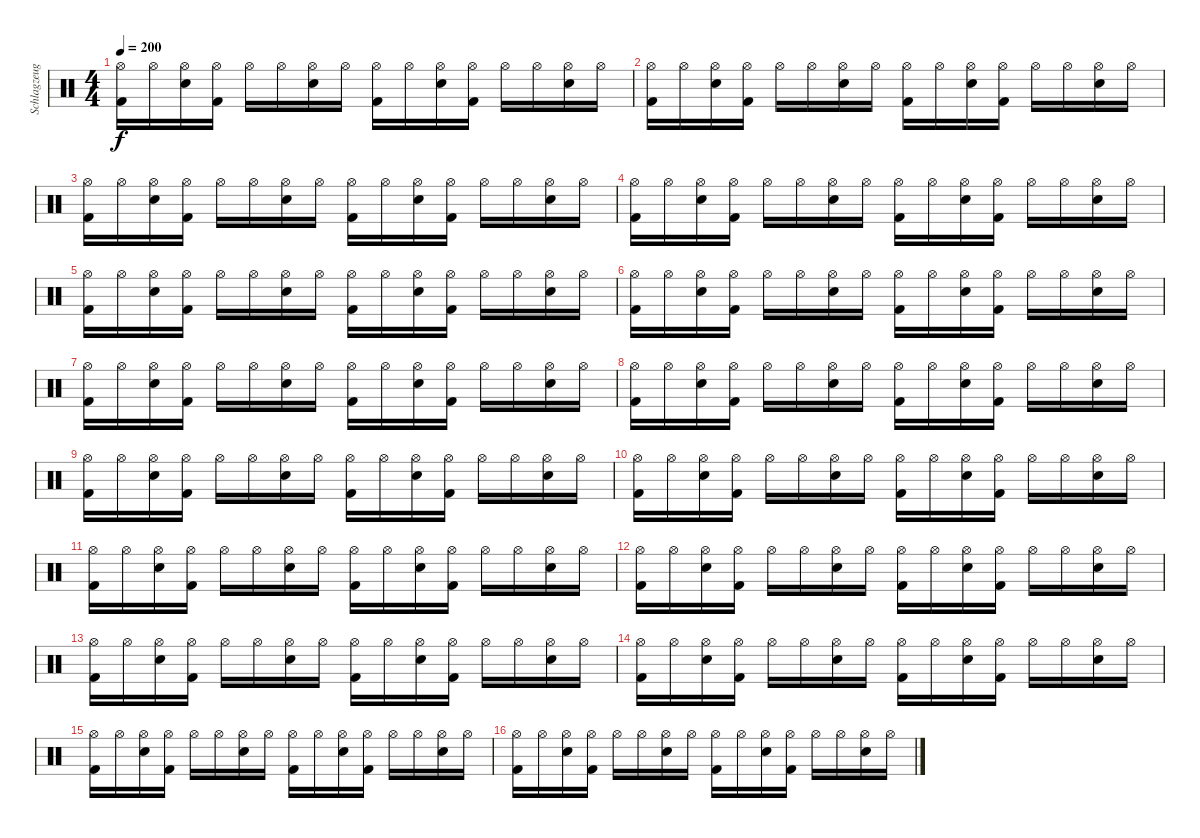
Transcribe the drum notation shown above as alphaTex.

\track ("Schlagzeug - Bela B." "Schlagzeug") {instrument percussion}
\staff {score}
\articulation defaults
\ts (4 4)
\tempo 200
\clef neutral
\ks c
("Kick (hit) 2" "Hi-Hat (open)").16{dy f} "Hi-Hat (open)".16 ("Electric Snare (hit)" "Hi-Hat (open)").16 ("Hi-Hat (open)" "Kick (hit) 2").16 "Hi-Hat (open)".16 "Hi-Hat (open)".16 ("Electric Snare (hit)" "Hi-Hat (open)").16 "Hi-Hat (open)".16 ("Kick (hit) 2" "Hi-Hat (open)").16 "Hi-Hat (open)".16 ("Electric Snare (hit)" "Hi-Hat (open)").16 ("Hi-Hat (open)" "Kick (hit) 2").16 "Hi-Hat (open)".16 "Hi-Hat (open)".16 ("Electric Snare (hit)" "Hi-Hat (open)").16 "Hi-Hat (open)".16 |
("Kick (hit) 2" "Hi-Hat (open)").16 "Hi-Hat (open)".16 ("Electric Snare (hit)" "Hi-Hat (open)").16 ("Hi-Hat (open)" "Kick (hit) 2").16 "Hi-Hat (open)".16 "Hi-Hat (open)".16 ("Electric Snare (hit)" "Hi-Hat (open)").16 "Hi-Hat (open)".16 ("Kick (hit) 2" "Hi-Hat (open)").16 "Hi-Hat (open)".16 ("Electric Snare (hit)" "Hi-Hat (open)").16 ("Hi-Hat (open)" "Kick (hit) 2").16 "Hi-Hat (open)".16 "Hi-Hat (open)".16 ("Electric Snare (hit)" "Hi-Hat (open)").16 "Hi-Hat (open)".16 |
("Kick (hit) 2" "Hi-Hat (open)").16 "Hi-Hat (open)".16 ("Electric Snare (hit)" "Hi-Hat (open)").16 ("Hi-Hat (open)" "Kick (hit) 2").16 "Hi-Hat (open)".16 "Hi-Hat (open)".16 ("Electric Snare (hit)" "Hi-Hat (open)").16 "Hi-Hat (open)".16 ("Kick (hit) 2" "Hi-Hat (open)").16 "Hi-Hat (open)".16 ("Electric Snare (hit)" "Hi-Hat (open)").16 ("Hi-Hat (open)" "Kick (hit) 2").16 "Hi-Hat (open)".16 "Hi-Hat (open)".16 ("Electric Snare (hit)" "Hi-Hat (open)").16 "Hi-Hat (open)".16 |
("Kick (hit) 2" "Hi-Hat (open)").16 "Hi-Hat (open)".16 ("Electric Snare (hit)" "Hi-Hat (open)").16 ("Hi-Hat (open)" "Kick (hit) 2").16 "Hi-Hat (open)".16 "Hi-Hat (open)".16 ("Electric Snare (hit)" "Hi-Hat (open)").16 "Hi-Hat (open)".16 ("Kick (hit) 2" "Hi-Hat (open)").16 "Hi-Hat (open)".16 ("Electric Snare (hit)" "Hi-Hat (open)").16 ("Hi-Hat (open)" "Kick (hit) 2").16 "Hi-Hat (open)".16 "Hi-Hat (open)".16 ("Electric Snare (hit)" "Hi-Hat (open)").16 "Hi-Hat (open)".16 |
("Kick (hit) 2" "Hi-Hat (open)").16 "Hi-Hat (open)".16 ("Electric Snare (hit)" "Hi-Hat (open)").16 ("Hi-Hat (open)" "Kick (hit) 2").16 "Hi-Hat (open)".16 "Hi-Hat (open)".16 ("Electric Snare (hit)" "Hi-Hat (open)").16 "Hi-Hat (open)".16 ("Kick (hit) 2" "Hi-Hat (open)").16 "Hi-Hat (open)".16 ("Electric Snare (hit)" "Hi-Hat (open)").16 ("Hi-Hat (open)" "Kick (hit) 2").16 "Hi-Hat (open)".16 "Hi-Hat (open)".16 ("Electric Snare (hit)" "Hi-Hat (open)").16 "Hi-Hat (open)".16 |
("Kick (hit) 2" "Hi-Hat (open)").16 "Hi-Hat (open)".16 ("Electric Snare (hit)" "Hi-Hat (open)").16 ("Hi-Hat (open)" "Kick (hit) 2").16 "Hi-Hat (open)".16 "Hi-Hat (open)".16 ("Electric Snare (hit)" "Hi-Hat (open)").16 "Hi-Hat (open)".16 ("Kick (hit) 2" "Hi-Hat (open)").16 "Hi-Hat (open)".16 ("Electric Snare (hit)" "Hi-Hat (open)").16 ("Hi-Hat (open)" "Kick (hit) 2").16 "Hi-Hat (open)".16 "Hi-Hat (open)".16 ("Electric Snare (hit)" "Hi-Hat (open)").16 "Hi-Hat (open)".16 |
("Kick (hit) 2" "Hi-Hat (open)").16 "Hi-Hat (open)".16 ("Electric Snare (hit)" "Hi-Hat (open)").16 ("Hi-Hat (open)" "Kick (hit) 2").16 "Hi-Hat (open)".16 "Hi-Hat (open)".16 ("Electric Snare (hit)" "Hi-Hat (open)").16 "Hi-Hat (open)".16 ("Kick (hit) 2" "Hi-Hat (open)").16 "Hi-Hat (open)".16 ("Electric Snare (hit)" "Hi-Hat (open)").16 ("Hi-Hat (open)" "Kick (hit) 2").16 "Hi-Hat (open)".16 "Hi-Hat (open)".16 ("Electric Snare (hit)" "Hi-Hat (open)").16 "Hi-Hat (open)".16 |
("Kick (hit) 2" "Hi-Hat (open)").16 "Hi-Hat (open)".16 ("Electric Snare (hit)" "Hi-Hat (open)").16 ("Hi-Hat (open)" "Kick (hit) 2").16 "Hi-Hat (open)".16 "Hi-Hat (open)".16 ("Electric Snare (hit)" "Hi-Hat (open)").16 "Hi-Hat (open)".16 ("Kick (hit) 2" "Hi-Hat (open)").16 "Hi-Hat (open)".16 ("Electric Snare (hit)" "Hi-Hat (open)").16 ("Hi-Hat (open)" "Kick (hit) 2").16 "Hi-Hat (open)".16 "Hi-Hat (open)".16 ("Electric Snare (hit)" "Hi-Hat (open)").16 "Hi-Hat (open)".16 |
("Kick (hit) 2" "Hi-Hat (open)").16 "Hi-Hat (open)".16 ("Electric Snare (hit)" "Hi-Hat (open)").16 ("Hi-Hat (open)" "Kick (hit) 2").16 "Hi-Hat (open)".16 "Hi-Hat (open)".16 ("Electric Snare (hit)" "Hi-Hat (open)").16 "Hi-Hat (open)".16 ("Kick (hit) 2" "Hi-Hat (open)").16 "Hi-Hat (open)".16 ("Electric Snare (hit)" "Hi-Hat (open)").16 ("Hi-Hat (open)" "Kick (hit) 2").16 "Hi-Hat (open)".16 "Hi-Hat (open)".16 ("Electric Snare (hit)" "Hi-Hat (open)").16 "Hi-Hat (open)".16 |
("Kick (hit) 2" "Hi-Hat (open)").16 "Hi-Hat (open)".16 ("Electric Snare (hit)" "Hi-Hat (open)").16 ("Hi-Hat (open)" "Kick (hit) 2").16 "Hi-Hat (open)".16 "Hi-Hat (open)".16 ("Electric Snare (hit)" "Hi-Hat (open)").16 "Hi-Hat (open)".16 ("Kick (hit) 2" "Hi-Hat (open)").16 "Hi-Hat (open)".16 ("Electric Snare (hit)" "Hi-Hat (open)").16 ("Hi-Hat (open)" "Kick (hit) 2").16 "Hi-Hat (open)".16 "Hi-Hat (open)".16 ("Electric Snare (hit)" "Hi-Hat (open)").16 "Hi-Hat (open)".16 |
("Kick (hit) 2" "Hi-Hat (open)").16 "Hi-Hat (open)".16 ("Electric Snare (hit)" "Hi-Hat (open)").16 ("Hi-Hat (open)" "Kick (hit) 2").16 "Hi-Hat (open)".16 "Hi-Hat (open)".16 ("Electric Snare (hit)" "Hi-Hat (open)").16 "Hi-Hat (open)".16 ("Kick (hit) 2" "Hi-Hat (open)").16 "Hi-Hat (open)".16 ("Electric Snare (hit)" "Hi-Hat (open)").16 ("Hi-Hat (open)" "Kick (hit) 2").16 "Hi-Hat (open)".16 "Hi-Hat (open)".16 ("Electric Snare (hit)" "Hi-Hat (open)").16 "Hi-Hat (open)".16 |
("Kick (hit) 2" "Hi-Hat (open)").16 "Hi-Hat (open)".16 ("Electric Snare (hit)" "Hi-Hat (open)").16 ("Hi-Hat (open)" "Kick (hit) 2").16 "Hi-Hat (open)".16 "Hi-Hat (open)".16 ("Electric Snare (hit)" "Hi-Hat (open)").16 "Hi-Hat (open)".16 ("Kick (hit) 2" "Hi-Hat (open)").16 "Hi-Hat (open)".16 ("Electric Snare (hit)" "Hi-Hat (open)").16 ("Hi-Hat (open)" "Kick (hit) 2").16 "Hi-Hat (open)".16 "Hi-Hat (open)".16 ("Electric Snare (hit)" "Hi-Hat (open)").16 "Hi-Hat (open)".16 |
("Kick (hit) 2" "Hi-Hat (open)").16 "Hi-Hat (open)".16 ("Electric Snare (hit)" "Hi-Hat (open)").16 ("Hi-Hat (open)" "Kick (hit) 2").16 "Hi-Hat (open)".16 "Hi-Hat (open)".16 ("Electric Snare (hit)" "Hi-Hat (open)").16 "Hi-Hat (open)".16 ("Kick (hit) 2" "Hi-Hat (open)").16 "Hi-Hat (open)".16 ("Electric Snare (hit)" "Hi-Hat (open)").16 ("Hi-Hat (open)" "Kick (hit) 2").16 "Hi-Hat (open)".16 "Hi-Hat (open)".16 ("Electric Snare (hit)" "Hi-Hat (open)").16 "Hi-Hat (open)".16 |
("Kick (hit) 2" "Hi-Hat (open)").16 "Hi-Hat (open)".16 ("Electric Snare (hit)" "Hi-Hat (open)").16 ("Hi-Hat (open)" "Kick (hit) 2").16 "Hi-Hat (open)".16 "Hi-Hat (open)".16 ("Electric Snare (hit)" "Hi-Hat (open)").16 "Hi-Hat (open)".16 ("Kick (hit) 2" "Hi-Hat (open)").16 "Hi-Hat (open)".16 ("Electric Snare (hit)" "Hi-Hat (open)").16 ("Hi-Hat (open)" "Kick (hit) 2").16 "Hi-Hat (open)".16 "Hi-Hat (open)".16 ("Electric Snare (hit)" "Hi-Hat (open)").16 "Hi-Hat (open)".16 |
("Kick (hit) 2" "Hi-Hat (open)").16{volume 12} "Hi-Hat (open)".16 ("Electric Snare (hit)" "Hi-Hat (open)").16{volume 12} ("Hi-Hat (open)" "Kick (hit) 2").16 "Hi-Hat (open)".16{volume 12} "Hi-Hat (open)".16 ("Electric Snare (hit)" "Hi-Hat (open)").16{volume 12} "Hi-Hat (open)".16 ("Kick (hit) 2" "Hi-Hat (open)").16{volume 12} "Hi-Hat (open)".16 ("Electric Snare (hit)" "Hi-Hat (open)").16{volume 12} ("Hi-Hat (open)" "Kick (hit) 2").16 "Hi-Hat (open)".16{volume 12} "Hi-Hat (open)".16 ("Electric Snare (hit)" "Hi-Hat (open)").16{volume 12} "Hi-Hat (open)".16 |
("Kick (hit) 2" "Hi-Hat (open)").16{volume 12} "Hi-Hat (open)".16 ("Electric Snare (hit)" "Hi-Hat (open)").16{volume 11} ("Hi-Hat (open)" "Kick (hit) 2").16 "Hi-Hat (open)".16{volume 11} "Hi-Hat (open)".16 ("Electric Snare (hit)" "Hi-Hat (open)").16{volume 11} "Hi-Hat (open)".16 ("Kick (hit) 2" "Hi-Hat (open)").16{volume 11} "Hi-Hat (open)".16 ("Electric Snare (hit)" "Hi-Hat (open)").16{volume 11} ("Hi-Hat (open)" "Kick (hit) 2").16{volume 11} "Hi-Hat (open)".16 "Hi-Hat (open)".16{volume 11} ("Electric Snare (hit)" "Hi-Hat (open)").16 "Hi-Hat (open)".16{volume 10}
